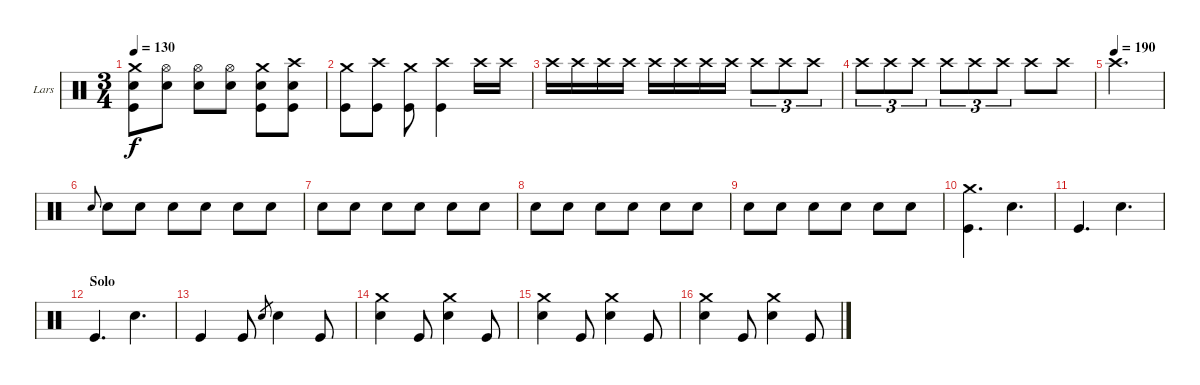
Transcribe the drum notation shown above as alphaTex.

\bracketExtendMode groupsimilarinstruments
\firstSystemTrackNameOrientation horizontal
\otherSystemsTrackNameOrientation horizontal
\track ("Drumkit" "Lars") {instrument percussion}
\staff {score}
\articulation defaults
\ts (3 4)
\tempo 130
\clef neutral
\ks c
("Crash medium (hit)" "Snare (hit) 2" "Kick (hit)").8{dy f} ("Hi-Hat (open)" "Snare (hit) 2").8 ("Hi-Hat (open)" "Snare (hit) 2").8 ("Hi-Hat (open)" "Snare (hit) 2").8 ("Crash medium (hit)" "Snare (hit) 2" "Kick (hit)").8 ("Crash high (hit)" "Snare (hit) 2" "Kick (hit)").8 |
("Crash medium (hit)" "Kick (hit)").8 ("Crash high (hit)" "Kick (hit)").8 ("Crash medium (hit)" "Kick (hit)").8 ("Crash high (hit)" "Kick (hit)").4 "Crash high (hit)".16 "Crash high (hit)".16 |
"Crash high (hit)".16 "Crash high (hit)".16 "Crash high (hit)".16 "Crash high (hit)".16 "Crash high (hit)".16 "Crash high (hit)".16 "Crash high (hit)".16 "Crash high (hit)".16 "Crash high (hit)".8{tu (3 2)} "Crash high (hit)".8{tu (3 2)} "Crash high (hit)".8{tu (3 2)} |
"Crash high (hit)".8{tu (3 2)} "Crash high (hit)".8{tu (3 2)} "Crash high (hit)".8{tu (3 2)} "Crash high (hit)".8{tu (3 2)} "Crash high (hit)".8{tu (3 2)} "Crash high (hit)".8{tu (3 2)} "Crash high (hit)".8 "Crash high (hit)".8 |
\tempo (190)
"Crash high (hit)".2{d} |
"Snare (hit) 2".8{gr onbeat} "Snare (hit) 2".8 "Snare (hit) 2".8 "Snare (hit) 2".8 "Snare (hit) 2".8 "Snare (hit) 2".8 "Snare (hit) 2".8 |
"Snare (hit) 2".8 "Snare (hit) 2".8 "Snare (hit) 2".8 "Snare (hit) 2".8 "Snare (hit) 2".8 "Snare (hit) 2".8 |
"Snare (hit) 2".8 "Snare (hit) 2".8 "Snare (hit) 2".8 "Snare (hit) 2".8 "Snare (hit) 2".8 "Snare (hit) 2".8 |
"Snare (hit) 2".8 "Snare (hit) 2".8 "Snare (hit) 2".8 "Snare (hit) 2".8 "Snare (hit) 2".8 "Snare (hit) 2".8 |
("Crash medium (hit)" "Kick (hit)").4{d} "Snare (hit) 2".4{d} |
"Kick (hit)".4{d} "Snare (hit) 2".4{d} |
\section ("" "Solo")
"Kick (hit)".4{d} "Snare (hit) 2".4{d} |
"Kick (hit)".4 "Kick (hit)".8 "Snare (hit) 2".8{gr} "Snare (hit) 2".4 "Kick (hit)".8 |
("Crash medium (hit)" "Snare (hit) 2").4 "Kick (hit)".8 ("Crash medium (hit)" "Snare (hit) 2").4 "Kick (hit)".8 |
("Crash medium (hit)" "Snare (hit) 2").4 "Kick (hit)".8 ("Crash medium (hit)" "Snare (hit) 2").4 "Kick (hit)".8 |
("Crash medium (hit)" "Snare (hit) 2").4 "Kick (hit)".8 ("Crash medium (hit)" "Snare (hit) 2").4 "Kick (hit)".8
